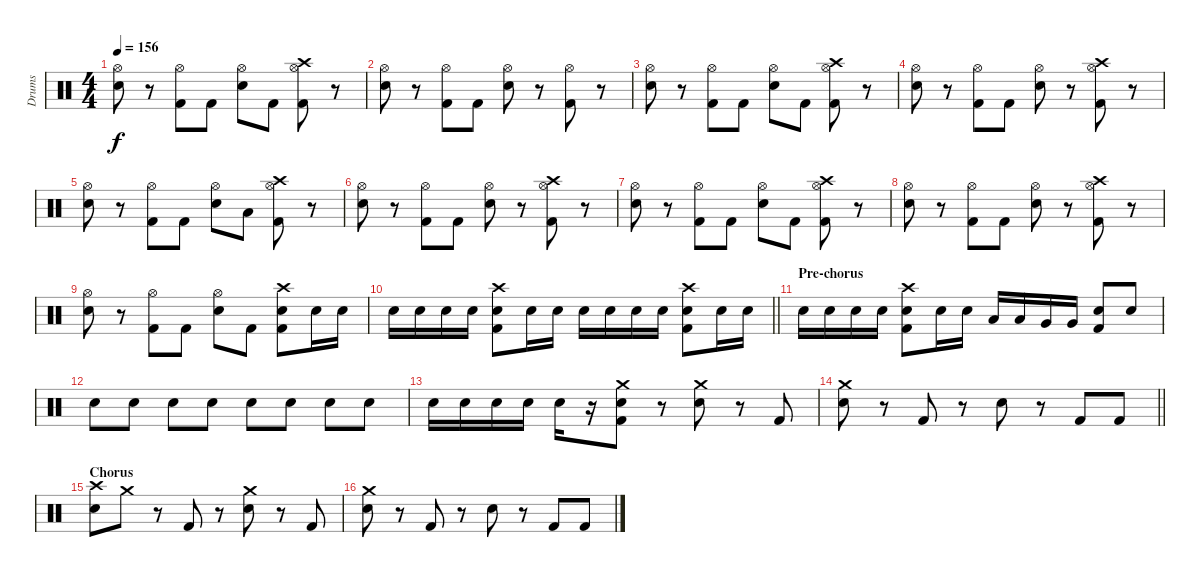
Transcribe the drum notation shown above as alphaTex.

\track ("Drums" "Drums") {instrument percussion}
\staff {score}
\articulation defaults
\ts (4 4)
\tempo 156
\clef neutral
\ks c
("Hi-Hat (open)" "Electric Snare (hit)").8{dy f} r.8 ("Hi-Hat (open)" "Kick (hit) 2").8 "Kick (hit) 2".8 ("Hi-Hat (open)" "Electric Snare (hit)").8 "Kick (hit) 2".8 ("Crash high (hit)" "Hi-Hat (open)" "Kick (hit) 2").8 r.8 |
("Hi-Hat (open)" "Electric Snare (hit)").8 r.8 ("Hi-Hat (open)" "Kick (hit) 2").8 "Kick (hit) 2".8 ("Hi-Hat (open)" "Electric Snare (hit)").8 r.8 ("Hi-Hat (open)" "Kick (hit) 2").8 r.8 |
("Hi-Hat (open)" "Electric Snare (hit)").8 r.8 ("Hi-Hat (open)" "Kick (hit) 2").8 "Kick (hit) 2".8 ("Hi-Hat (open)" "Electric Snare (hit)").8 "Kick (hit) 2".8 ("Crash high (hit)" "Hi-Hat (open)" "Kick (hit) 2").8 r.8 |
("Hi-Hat (open)" "Electric Snare (hit)").8 r.8 ("Hi-Hat (open)" "Kick (hit) 2").8 "Kick (hit) 2".8 ("Hi-Hat (open)" "Electric Snare (hit)").8 r.8 ("Crash high (hit)" "Hi-Hat (open)" "Kick (hit) 2").8 r.8 |
("Hi-Hat (open)" "Electric Snare (hit)").8 r.8 ("Hi-Hat (open)" "Kick (hit) 2").8 "Kick (hit) 2".8 ("Hi-Hat (open)" "Electric Snare (hit)").8 "Low Tom (hit)".8 ("Crash high (hit)" "Hi-Hat (open)" "Kick (hit) 2").8 r.8 |
("Hi-Hat (open)" "Electric Snare (hit)").8 r.8 ("Hi-Hat (open)" "Kick (hit) 2").8 "Kick (hit) 2".8 ("Hi-Hat (open)" "Electric Snare (hit)").8 r.8 ("Crash high (hit)" "Hi-Hat (open)" "Kick (hit) 2").8 r.8 |
("Hi-Hat (open)" "Electric Snare (hit)").8 r.8 ("Hi-Hat (open)" "Kick (hit) 2").8 "Kick (hit) 2".8 ("Hi-Hat (open)" "Electric Snare (hit)").8 "Kick (hit) 2".8 ("Crash high (hit)" "Hi-Hat (open)" "Kick (hit) 2").8 r.8 |
("Hi-Hat (open)" "Electric Snare (hit)").8 r.8 ("Hi-Hat (open)" "Kick (hit) 2").8 "Kick (hit) 2".8 ("Hi-Hat (open)" "Electric Snare (hit)").8 r.8 ("Crash high (hit)" "Hi-Hat (open)" "Kick (hit) 2").8 r.8 |
("Hi-Hat (open)" "Electric Snare (hit)").8 r.8 ("Hi-Hat (open)" "Kick (hit) 2").8 "Kick (hit) 2".8 ("Hi-Hat (open)" "Electric Snare (hit)").8 "Kick (hit) 2".8 ("Crash high (hit)" "Electric Snare (hit)" "Kick (hit) 2").8 "Electric Snare (hit)".16 "Electric Snare (hit)".16 |
\barLineRight lightlight "Electric Snare (hit)".16 "Electric Snare (hit)".16 "Electric Snare (hit)".16 "Electric Snare (hit)".16
("Crash high (hit)" "Electric Snare (hit)" "Kick (hit) 2").8 "Electric Snare (hit)".16 "Electric Snare (hit)".16 "Electric Snare (hit)".16 "Electric Snare (hit)".16 "Electric Snare (hit)".16 "Electric Snare (hit)".16 ("Crash high (hit)" "Electric Snare (hit)" "Kick (hit) 2").8 "Electric Snare (hit)".16 "Electric Snare (hit)".16 |
\section ("" "Pre-chorus")
"Electric Snare (hit)".16 "Electric Snare (hit)".16 "Electric Snare (hit)".16 "Electric Snare (hit)".16 ("Crash high (hit)" "Electric Snare (hit)" "Kick (hit) 2").8 "Electric Snare (hit)".16 "Electric Snare (hit)".16 "Low Tom (hit)".16 "Low Tom (hit)".16 "Very Low Tom (hit)".16 "Very Low Tom (hit)".16 ("Electric Snare (hit)" "Kick (hit) 2").8 "Electric Snare (hit)".8 |
"Electric Snare (hit)".8 "Electric Snare (hit)".8 "Electric Snare (hit)".8 "Electric Snare (hit)".8 "Electric Snare (hit)".8 "Electric Snare (hit)".8 "Electric Snare (hit)".8 "Electric Snare (hit)".8 |
"Electric Snare (hit)".16 "Electric Snare (hit)".16 "Electric Snare (hit)".16 "Electric Snare (hit)".16 "Electric Snare (hit)".16 r.16 ("Crash medium (hit)" "Electric Snare (hit)" "Kick (hit) 2").8 r.8 ("Crash medium (hit)" "Electric Snare (hit)").8 r.8 "Kick (hit) 2".8 |
\barLineRight lightlight
("Crash medium (hit)" "Electric Snare (hit)").8 r.8 "Kick (hit) 2".8 r.8 "Electric Snare (hit)".8 r.8 "Kick (hit) 2".8 "Kick (hit) 2".8 |
\section ("" "Chorus")
("Crash high (hit)" "Electric Snare (hit)").8 "Crash medium (hit)".8 r.8 "Kick (hit) 2".8 r.8 ("Crash medium (hit)" "Electric Snare (hit)").8 r.8 "Kick (hit) 2".8 |
("Crash medium (hit)" "Electric Snare (hit)").8 r.8 "Kick (hit) 2".8 r.8 "Electric Snare (hit)".8 r.8 "Kick (hit) 2".8 "Kick (hit) 2".8
